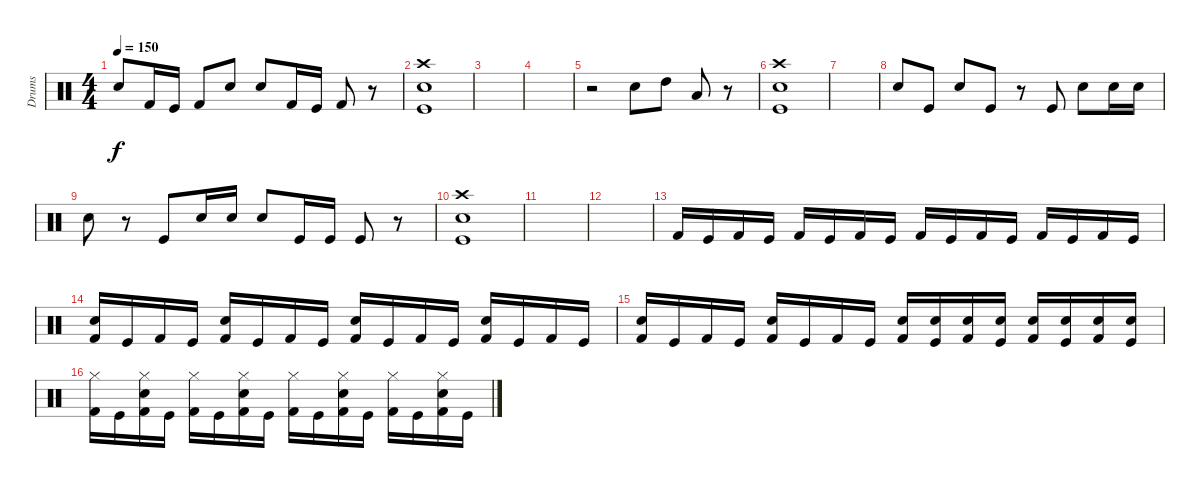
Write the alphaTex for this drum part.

\track ("Drums" "Drums") {instrument percussion}
\staff {score}
\articulation defaults
\ts (4 4)
\tempo 150
\clef neutral
\ks c "Snare (hit) 2".8{dy f} "Kick (hit) 2".16 "Kick (hit)".16 "Kick (hit) 2".8 "Snare (hit) 2".8 "Snare (hit) 2".8 "Kick (hit) 2".16 "Kick (hit)".16 "Kick (hit) 2".8
r.8 |
("Crash high (hit)" "Snare (hit) 2" "Kick (hit)").1 |
|
|
r.2 "Snare (hit) 2".8 "High Tom (hit)".8 "Low Tom (hit)".8 r.8 |
("Crash high (hit)" "Snare (hit) 2" "Kick (hit)").1 |
|
"Snare (hit) 2".8 "Kick (hit)".8 "Snare (hit) 2".8 "Kick (hit)".8 r.8 "Kick (hit)".8 "Snare (hit) 2".8 "Snare (hit) 2".16 "Snare (hit) 2".16 |
"Snare (hit) 2".8 r.8 "Kick (hit)".8 "Snare (hit) 2".16 "Snare (hit) 2".16 "Snare (hit) 2".8 "Kick (hit)".16 "Kick (hit)".16 "Kick (hit)".8 r.8 |
("Crash high (hit)" "Snare (hit) 2" "Kick (hit)").1 |
|
|
"Kick (hit) 2".16 "Kick (hit)".16 "Kick (hit) 2".16 "Kick (hit)".16 "Kick (hit) 2".16 "Kick (hit)".16 "Kick (hit) 2".16 "Kick (hit)".16 "Kick (hit) 2".16 "Kick (hit)".16 "Kick (hit) 2".16 "Kick (hit)".16 "Kick (hit) 2".16 "Kick (hit)".16 "Kick (hit) 2".16 "Kick (hit)".16 |
("Snare (hit) 2" "Kick (hit) 2").16 "Kick (hit)".16 "Kick (hit) 2".16 "Kick (hit)".16 ("Snare (hit) 2" "Kick (hit) 2").16 "Kick (hit)".16 "Kick (hit) 2".16 "Kick (hit)".16 ("Snare (hit) 2" "Kick (hit) 2").16 "Kick (hit)".16 "Kick (hit) 2".16 "Kick (hit)".16 ("Snare (hit) 2" "Kick (hit) 2").16 "Kick (hit)".16 "Kick (hit) 2".16 "Kick (hit)".16 |
("Snare (hit) 2" "Kick (hit) 2").16 "Kick (hit)".16 "Kick (hit) 2".16 "Kick (hit)".16 ("Snare (hit) 2" "Kick (hit) 2").16 "Kick (hit)".16 "Kick (hit) 2".16 "Kick (hit)".16 ("Snare (hit) 2" "Kick (hit) 2").16 ("Snare (hit) 2" "Kick (hit)").16 ("Snare (hit) 2" "Kick (hit) 2").16 ("Snare (hit) 2" "Kick (hit)").16 ("Snare (hit) 2" "Kick (hit) 2").16 ("Snare (hit) 2" "Kick (hit)").16 ("Snare (hit) 2" "Kick (hit) 2").16 ("Snare (hit) 2" "Kick (hit)").16 |
("Hi-Hat (closed)" "Kick (hit) 2").16 "Kick (hit)".16 ("Hi-Hat (closed)" "Snare (hit) 2" "Kick (hit) 2").16 "Kick (hit)".16 ("Hi-Hat (closed)" "Kick (hit) 2").16 "Kick (hit)".16 ("Hi-Hat (closed)" "Snare (hit) 2" "Kick (hit) 2").16 "Kick (hit)".16 ("Hi-Hat (closed)" "Kick (hit) 2").16 "Kick (hit)".16 ("Hi-Hat (closed)" "Snare (hit) 2" "Kick (hit) 2").16 "Kick (hit)".16 ("Hi-Hat (closed)" "Kick (hit) 2").16 "Kick (hit)".16 ("Hi-Hat (closed)" "Snare (hit) 2" "Kick (hit) 2").16 "Kick (hit)".16
